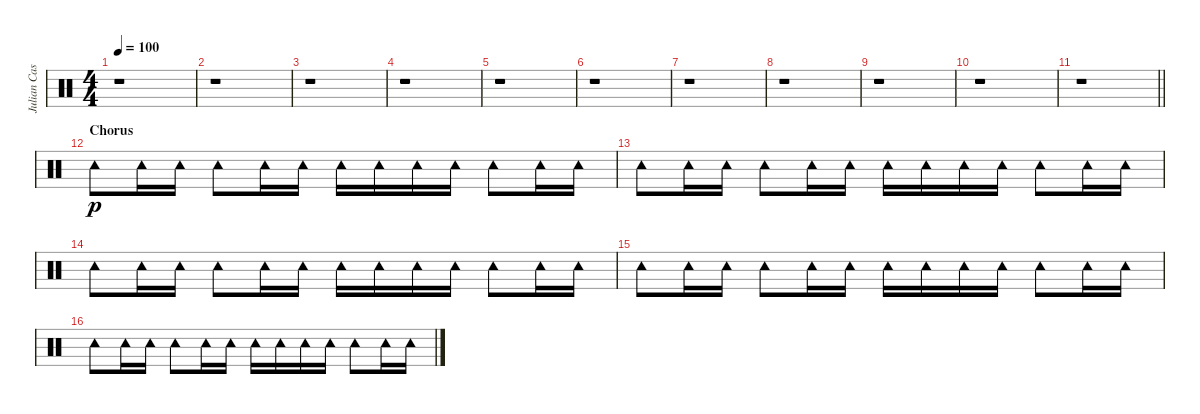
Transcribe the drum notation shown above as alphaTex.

\track ("Julian Casablancas" "Julian Cas") {instrument percussion}
\staff {score}
\articulation defaults
\ts (4 4)
\tempo 100
\clef neutral
\ks c
r.1{dy p} |
r.1 |
r.1 |
r.1 |
r.1 |
r.1 |
r.1 |
r.1 |
r.1 |
r.1 |
\barLineRight lightlight
r.1 |
\section ("" "Chorus")
"Tambourine (hit)".8 "Tambourine (hit)".16 "Tambourine (hit)".16 "Tambourine (hit)".8 "Tambourine (hit)".16 "Tambourine (hit)".16 "Tambourine (hit)".16 "Tambourine (hit)".16 "Tambourine (hit)".16 "Tambourine (hit)".16 "Tambourine (hit)".8 "Tambourine (hit)".16 "Tambourine (hit)".16 |
"Tambourine (hit)".8 "Tambourine (hit)".16 "Tambourine (hit)".16 "Tambourine (hit)".8 "Tambourine (hit)".16 "Tambourine (hit)".16 "Tambourine (hit)".16 "Tambourine (hit)".16 "Tambourine (hit)".16 "Tambourine (hit)".16 "Tambourine (hit)".8 "Tambourine (hit)".16 "Tambourine (hit)".16 |
"Tambourine (hit)".8 "Tambourine (hit)".16 "Tambourine (hit)".16 "Tambourine (hit)".8 "Tambourine (hit)".16 "Tambourine (hit)".16 "Tambourine (hit)".16 "Tambourine (hit)".16 "Tambourine (hit)".16 "Tambourine (hit)".16 "Tambourine (hit)".8 "Tambourine (hit)".16 "Tambourine (hit)".16 |
"Tambourine (hit)".8 "Tambourine (hit)".16 "Tambourine (hit)".16 "Tambourine (hit)".8 "Tambourine (hit)".16 "Tambourine (hit)".16 "Tambourine (hit)".16 "Tambourine (hit)".16 "Tambourine (hit)".16 "Tambourine (hit)".16 "Tambourine (hit)".8 "Tambourine (hit)".16 "Tambourine (hit)".16 |
"Tambourine (hit)".8 "Tambourine (hit)".16 "Tambourine (hit)".16 "Tambourine (hit)".8 "Tambourine (hit)".16 "Tambourine (hit)".16 "Tambourine (hit)".16 "Tambourine (hit)".16 "Tambourine (hit)".16 "Tambourine (hit)".16 "Tambourine (hit)".8 "Tambourine (hit)".16 "Tambourine (hit)".16
